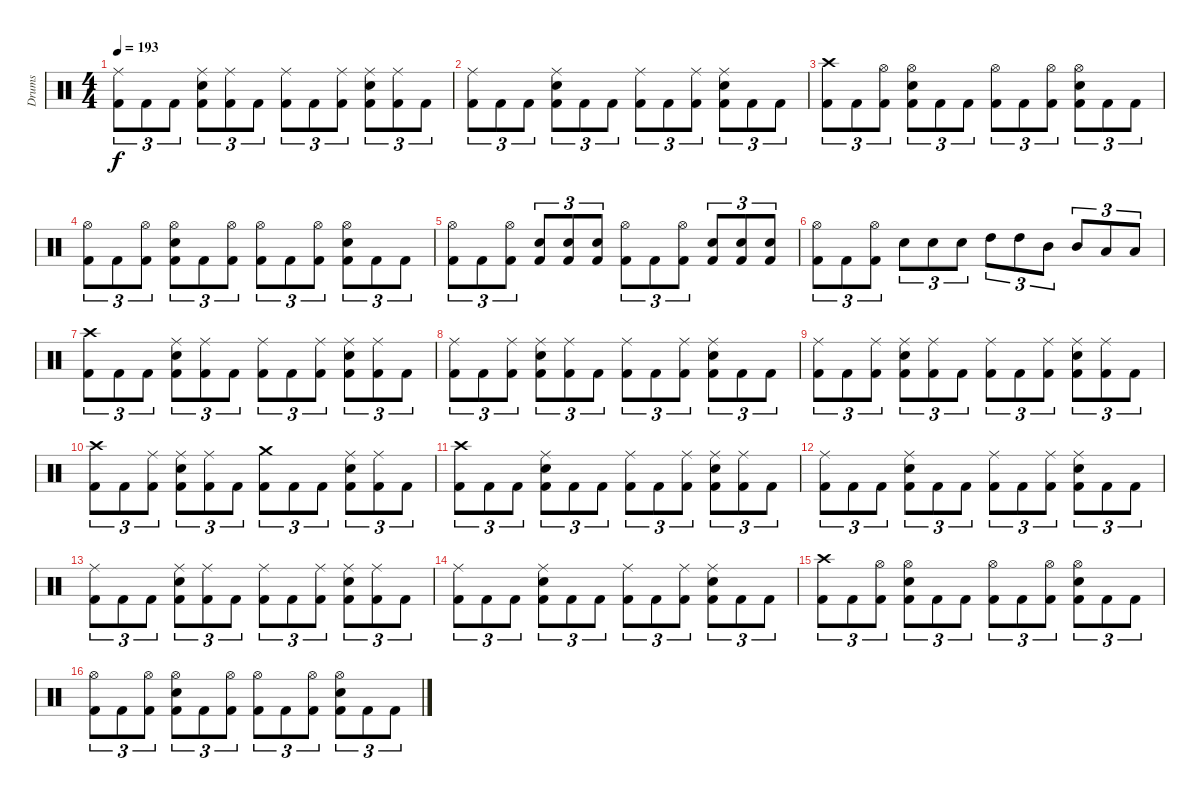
\track ("Drums" "Drums") {instrument percussion}
\staff {score}
\articulation defaults
\ts (4 4)
\tempo 193
\clef neutral
\ks c
("Ride (middle)" "Kick (hit) 2").8{tu (3 2) dy f} "Kick (hit) 2".8{tu (3 2)} "Kick (hit) 2".8{tu (3 2)} ("Ride (middle)" "Electric Snare (hit)" "Kick (hit) 2").8{tu (3 2)} ("Ride (middle)" "Kick (hit) 2").8{tu (3 2)} "Kick (hit) 2".8{tu (3 2)} ("Ride (middle)" "Kick (hit) 2").8{tu (3 2)} "Kick (hit) 2".8{tu (3 2)} ("Ride (middle)" "Kick (hit) 2").8{tu (3 2)} ("Ride (middle)" "Electric Snare (hit)" "Kick (hit) 2").8{tu (3 2)} ("Ride (middle)" "Kick (hit) 2").8{tu (3 2)} "Kick (hit) 2".8{tu (3 2)} |
("Ride (middle)" "Kick (hit) 2").8{tu (3 2)} "Kick (hit) 2".8{tu (3 2)} "Kick (hit) 2".8{tu (3 2)} ("Ride (middle)" "Electric Snare (hit)" "Kick (hit) 2").8{tu (3 2)} "Kick (hit) 2".8{tu (3 2)} "Kick (hit) 2".8{tu (3 2)} ("Ride (middle)" "Kick (hit) 2").8{tu (3 2)} "Kick (hit) 2".8{tu (3 2)} ("Ride (middle)" "Kick (hit) 2").8{tu (3 2)} ("Ride (middle)" "Electric Snare (hit)" "Kick (hit) 2").8{tu (3 2)} "Kick (hit) 2".8{tu (3 2)} "Kick (hit) 2".8{tu (3 2)} |
("Crash high (hit)" "Kick (hit) 2").8{tu (3 2)} "Kick (hit) 2".8{tu (3 2)} ("Hi-Hat (open)" "Kick (hit) 2").8{tu (3 2)} ("Hi-Hat (open)" "Electric Snare (hit)" "Kick (hit) 2").8{tu (3 2)} "Kick (hit) 2".8{tu (3 2)} "Kick (hit) 2".8{tu (3 2)} ("Hi-Hat (open)" "Kick (hit) 2").8{tu (3 2)} "Kick (hit) 2".8{tu (3 2)} ("Hi-Hat (open)" "Kick (hit) 2").8{tu (3 2)} ("Hi-Hat (open)" "Electric Snare (hit)" "Kick (hit) 2").8{tu (3 2)} "Kick (hit) 2".8{tu (3 2)} "Kick (hit) 2".8{tu (3 2)} |
("Hi-Hat (open)" "Kick (hit) 2").8{tu (3 2)} "Kick (hit) 2".8{tu (3 2)} ("Hi-Hat (open)" "Kick (hit) 2").8{tu (3 2)} ("Hi-Hat (open)" "Electric Snare (hit)" "Kick (hit) 2").8{tu (3 2)} "Kick (hit) 2".8{tu (3 2)} ("Hi-Hat (open)" "Kick (hit) 2").8{tu (3 2)} ("Hi-Hat (open)" "Kick (hit) 2").8{tu (3 2)} "Kick (hit) 2".8{tu (3 2)} ("Hi-Hat (open)" "Kick (hit) 2").8{tu (3 2)} ("Hi-Hat (open)" "Electric Snare (hit)" "Kick (hit) 2").8{tu (3 2)} "Kick (hit) 2".8{tu (3 2)} "Kick (hit) 2".8{tu (3 2)} |
("Hi-Hat (open)" "Kick (hit) 2").8{tu (3 2)} "Kick (hit) 2".8{tu (3 2)} ("Hi-Hat (open)" "Kick (hit) 2").8{tu (3 2)} ("Electric Snare (hit)" "Kick (hit) 2").8{tu (3 2)} ("Electric Snare (hit)" "Kick (hit) 2").8{tu (3 2)} ("Electric Snare (hit)" "Kick (hit) 2").8{tu (3 2)} ("Hi-Hat (open)" "Kick (hit) 2").8{tu (3 2)} "Kick (hit) 2".8{tu (3 2)} ("Hi-Hat (open)" "Kick (hit) 2").8{tu (3 2)} ("Electric Snare (hit)" "Kick (hit) 2").8{tu (3 2)} ("Electric Snare (hit)" "Kick (hit) 2").8{tu (3 2)} ("Electric Snare (hit)" "Kick (hit) 2").8{tu (3 2)} |
("Hi-Hat (open)" "Kick (hit) 2").8{tu (3 2)} "Kick (hit) 2".8{tu (3 2)} ("Hi-Hat (open)" "Kick (hit) 2").8{tu (3 2)} "Electric Snare (hit)".8{tu (3 2)} "Electric Snare (hit)".8{tu (3 2)} "Electric Snare (hit)".8{tu (3 2)} "High Tom (hit)".8{tu (3 2)} "High Tom (hit)".8{tu (3 2)} "Mid Tom (hit)".8{tu (3 2)} "Mid Tom (hit)".8{tu (3 2)} "Low Tom (hit)".8{tu (3 2)} "Low Tom (hit)".8{tu (3 2)} |
("Crash high (hit)" "Kick (hit) 2").8{tu (3 2)} "Kick (hit) 2".8{tu (3 2)} "Kick (hit) 2".8{tu (3 2)} ("Ride (middle)" "Electric Snare (hit)" "Kick (hit) 2").8{tu (3 2)} ("Ride (middle)" "Kick (hit) 2").8{tu (3 2)} "Kick (hit) 2".8{tu (3 2)} ("Ride (middle)" "Kick (hit) 2").8{tu (3 2)} "Kick (hit) 2".8{tu (3 2)} ("Ride (middle)" "Kick (hit) 2").8{tu (3 2)} ("Ride (middle)" "Electric Snare (hit)" "Kick (hit) 2").8{tu (3 2)} ("Ride (middle)" "Kick (hit) 2").8{tu (3 2)} "Kick (hit) 2".8{tu (3 2)} |
("Ride (middle)" "Kick (hit) 2").8{tu (3 2)} "Kick (hit) 2".8{tu (3 2)} ("Ride (middle)" "Kick (hit) 2").8{tu (3 2)} ("Ride (middle)" "Electric Snare (hit)" "Kick (hit) 2").8{tu (3 2)} ("Ride (middle)" "Kick (hit) 2").8{tu (3 2)} "Kick (hit) 2".8{tu (3 2)} ("Ride (middle)" "Kick (hit) 2").8{tu (3 2)} "Kick (hit) 2".8{tu (3 2)} ("Ride (middle)" "Kick (hit) 2").8{tu (3 2)} ("Ride (middle)" "Electric Snare (hit)" "Kick (hit) 2").8{tu (3 2)} "Kick (hit) 2".8{tu (3 2)} "Kick (hit) 2".8{tu (3 2)} |
("Ride (middle)" "Kick (hit) 2").8{tu (3 2)} "Kick (hit) 2".8{tu (3 2)} ("Ride (middle)" "Kick (hit) 2").8{tu (3 2)} ("Ride (middle)" "Electric Snare (hit)" "Kick (hit) 2").8{tu (3 2)} ("Ride (middle)" "Kick (hit) 2").8{tu (3 2)} "Kick (hit) 2".8{tu (3 2)} ("Ride (middle)" "Kick (hit) 2").8{tu (3 2)} "Kick (hit) 2".8{tu (3 2)} ("Ride (middle)" "Kick (hit) 2").8{tu (3 2)} ("Ride (middle)" "Electric Snare (hit)" "Kick (hit) 2").8{tu (3 2)} ("Ride (middle)" "Kick (hit) 2").8{tu (3 2)} "Kick (hit) 2".8{tu (3 2)} |
("Crash high (hit)" "Kick (hit) 2").8{tu (3 2)} "Kick (hit) 2".8{tu (3 2)} ("Ride (middle)" "Kick (hit) 2").8{tu (3 2)} ("Ride (middle)" "Electric Snare (hit)" "Kick (hit) 2").8{tu (3 2)} ("Ride (middle)" "Kick (hit) 2").8{tu (3 2)} "Kick (hit) 2".8{tu (3 2)} ("Crash medium (hit)" "Kick (hit) 2").8{tu (3 2)} "Kick (hit) 2".8{tu (3 2)} "Kick (hit) 2".8{tu (3 2)} ("Ride (middle)" "Electric Snare (hit)" "Kick (hit) 2").8{tu (3 2)} ("Ride (middle)" "Kick (hit) 2").8{tu (3 2)} "Kick (hit) 2".8{tu (3 2)} |
("Crash high (hit)" "Kick (hit) 2").8{tu (3 2)} "Kick (hit) 2".8{tu (3 2)} "Kick (hit) 2".8{tu (3 2)} ("Ride (middle)" "Electric Snare (hit)" "Kick (hit) 2").8{tu (3 2)} "Kick (hit) 2".8{tu (3 2)} "Kick (hit) 2".8{tu (3 2)} ("Ride (middle)" "Kick (hit) 2").8{tu (3 2)} "Kick (hit) 2".8{tu (3 2)} ("Ride (middle)" "Kick (hit) 2").8{tu (3 2)} ("Ride (middle)" "Electric Snare (hit)" "Kick (hit) 2").8{tu (3 2)} ("Ride (middle)" "Kick (hit) 2").8{tu (3 2)} "Kick (hit) 2".8{tu (3 2)} |
("Ride (middle)" "Kick (hit) 2").8{tu (3 2)} "Kick (hit) 2".8{tu (3 2)} "Kick (hit) 2".8{tu (3 2)} ("Ride (middle)" "Electric Snare (hit)" "Kick (hit) 2").8{tu (3 2)} "Kick (hit) 2".8{tu (3 2)} "Kick (hit) 2".8{tu (3 2)} ("Ride (middle)" "Kick (hit) 2").8{tu (3 2)} "Kick (hit) 2".8{tu (3 2)} ("Ride (middle)" "Kick (hit) 2").8{tu (3 2)} ("Ride (middle)" "Electric Snare (hit)" "Kick (hit) 2").8{tu (3 2)} "Kick (hit) 2".8{tu (3 2)} "Kick (hit) 2".8{tu (3 2)} |
("Ride (middle)" "Kick (hit) 2").8{tu (3 2)} "Kick (hit) 2".8{tu (3 2)} "Kick (hit) 2".8{tu (3 2)} ("Ride (middle)" "Electric Snare (hit)" "Kick (hit) 2").8{tu (3 2)} ("Ride (middle)" "Kick (hit) 2").8{tu (3 2)} "Kick (hit) 2".8{tu (3 2)} ("Ride (middle)" "Kick (hit) 2").8{tu (3 2)} "Kick (hit) 2".8{tu (3 2)} ("Ride (middle)" "Kick (hit) 2").8{tu (3 2)} ("Ride (middle)" "Electric Snare (hit)" "Kick (hit) 2").8{tu (3 2)} ("Ride (middle)" "Kick (hit) 2").8{tu (3 2)} "Kick (hit) 2".8{tu (3 2)} |
("Ride (middle)" "Kick (hit) 2").8{tu (3 2)} "Kick (hit) 2".8{tu (3 2)} "Kick (hit) 2".8{tu (3 2)} ("Ride (middle)" "Electric Snare (hit)" "Kick (hit) 2").8{tu (3 2)} "Kick (hit) 2".8{tu (3 2)} "Kick (hit) 2".8{tu (3 2)} ("Ride (middle)" "Kick (hit) 2").8{tu (3 2)} "Kick (hit) 2".8{tu (3 2)} ("Ride (middle)" "Kick (hit) 2").8{tu (3 2)} ("Ride (middle)" "Electric Snare (hit)" "Kick (hit) 2").8{tu (3 2)} "Kick (hit) 2".8{tu (3 2)} "Kick (hit) 2".8{tu (3 2)} |
("Crash high (hit)" "Kick (hit) 2").8{tu (3 2)} "Kick (hit) 2".8{tu (3 2)} ("Hi-Hat (open)" "Kick (hit) 2").8{tu (3 2)} ("Hi-Hat (open)" "Electric Snare (hit)" "Kick (hit) 2").8{tu (3 2)} "Kick (hit) 2".8{tu (3 2)} "Kick (hit) 2".8{tu (3 2)} ("Hi-Hat (open)" "Kick (hit) 2").8{tu (3 2)} "Kick (hit) 2".8{tu (3 2)} ("Hi-Hat (open)" "Kick (hit) 2").8{tu (3 2)} ("Hi-Hat (open)" "Electric Snare (hit)" "Kick (hit) 2").8{tu (3 2)} "Kick (hit) 2".8{tu (3 2)} "Kick (hit) 2".8{tu (3 2)} |
("Hi-Hat (open)" "Kick (hit) 2").8{tu (3 2)} "Kick (hit) 2".8{tu (3 2)} ("Hi-Hat (open)" "Kick (hit) 2").8{tu (3 2)} ("Hi-Hat (open)" "Electric Snare (hit)" "Kick (hit) 2").8{tu (3 2)} "Kick (hit) 2".8{tu (3 2)} ("Hi-Hat (open)" "Kick (hit) 2").8{tu (3 2)} ("Hi-Hat (open)" "Kick (hit) 2").8{tu (3 2)} "Kick (hit) 2".8{tu (3 2)} ("Hi-Hat (open)" "Kick (hit) 2").8{tu (3 2)} ("Hi-Hat (open)" "Electric Snare (hit)" "Kick (hit) 2").8{tu (3 2)} "Kick (hit) 2".8{tu (3 2)} "Kick (hit) 2".8{tu (3 2)}
